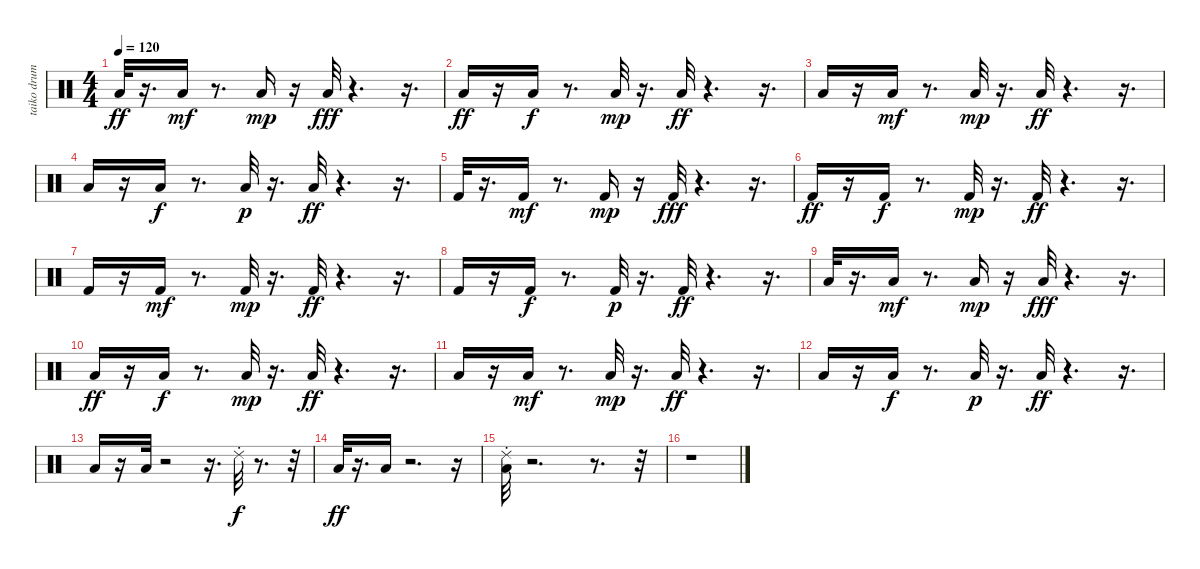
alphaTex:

\track ("taiko drum" "taiko drum") {instrument percussion}
\staff {score}
\articulation defaults
\ts (4 4)
\tempo 120
\clef neutral
\ks c "Low Floor Tom (hit)".32{dy ff}
r.16{d} "Low Floor Tom (hit)".16{dy mf} r.8{d} "Low Floor Tom (hit)".16{dy mp} r.16 "Low Floor Tom (hit)".32{dy fff} r.4{d} r.16{d} |
"Low Floor Tom (hit)".16{dy ff} r.16 "Low Floor Tom (hit)".16{dy f} r.8{d} "Low Floor Tom (hit)".32{dy mp} r.16{d} "Low Floor Tom (hit)".32{dy ff} r.4{d} r.16{d} |
"Low Floor Tom (hit)".16 r.16 "Low Floor Tom (hit)".16{dy mf} r.8{d} "Low Floor Tom (hit)".32{dy mp} r.16{d} "Low Floor Tom (hit)".32{dy ff} r.4{d} r.16{d} |
"Low Floor Tom (hit)".16 r.16 "Low Floor Tom (hit)".16{dy f} r.8{d} "Low Floor Tom (hit)".32{dy p} r.16{d} "Low Floor Tom (hit)".32{dy ff} r.4{d} r.16{d} |
"Kick (hit) 2".32 r.16{d} "Kick (hit) 2".16{dy mf} r.8{d} "Kick (hit) 2".16{dy mp} r.16 "Kick (hit) 2".32{dy fff} r.4{d} r.16{d} |
"Kick (hit) 2".16{dy ff} r.16 "Kick (hit) 2".16{dy f} r.8{d} "Kick (hit) 2".32{dy mp} r.16{d} "Kick (hit) 2".32{dy ff} r.4{d} r.16{d} |
"Kick (hit) 2".16 r.16 "Kick (hit) 2".16{dy mf} r.8{d} "Kick (hit) 2".32{dy mp} r.16{d} "Kick (hit) 2".32{dy ff} r.4{d} r.16{d} |
"Kick (hit) 2".16 r.16 "Kick (hit) 2".16{dy f} r.8{d} "Kick (hit) 2".32{dy p} r.16{d} "Kick (hit) 2".32{dy ff} r.4{d} r.16{d} |
"Low Floor Tom (hit)".32 r.16{d} "Low Floor Tom (hit)".16{dy mf} r.8{d} "Low Floor Tom (hit)".16{dy mp} r.16 "Low Floor Tom (hit)".32{dy fff} r.4{d} r.16{d} |
"Low Floor Tom (hit)".16{dy ff} r.16 "Low Floor Tom (hit)".16{dy f} r.8{d} "Low Floor Tom (hit)".32{dy mp} r.16{d} "Low Floor Tom (hit)".32{dy ff} r.4{d} r.16{d} |
"Low Floor Tom (hit)".16 r.16 "Low Floor Tom (hit)".16{dy mf} r.8{d} "Low Floor Tom (hit)".32{dy mp} r.16{d} "Low Floor Tom (hit)".32{dy ff} r.4{d} r.16{d} |
"Low Floor Tom (hit)".16 r.16 "Low Floor Tom (hit)".16{dy f} r.8{d} "Low Floor Tom (hit)".32{dy p} r.16{d} "Low Floor Tom (hit)".32{dy ff} r.4{d} r.16{d} |
"Low Floor Tom (hit)".16 r.16 "Low Floor Tom (hit)".32 r.2 r.16{d} "Ride (choke) 2".32{dy f} r.8{d} r.32 |
"Low Floor Tom (hit)".32{dy ff} r.16{d} "Low Floor Tom (hit)".16 r.2{d} r.16 |
("Ride (choke) 2" "Low Floor Tom (hit)").32 r.2{d} r.8{d} r.32 |
r.1
